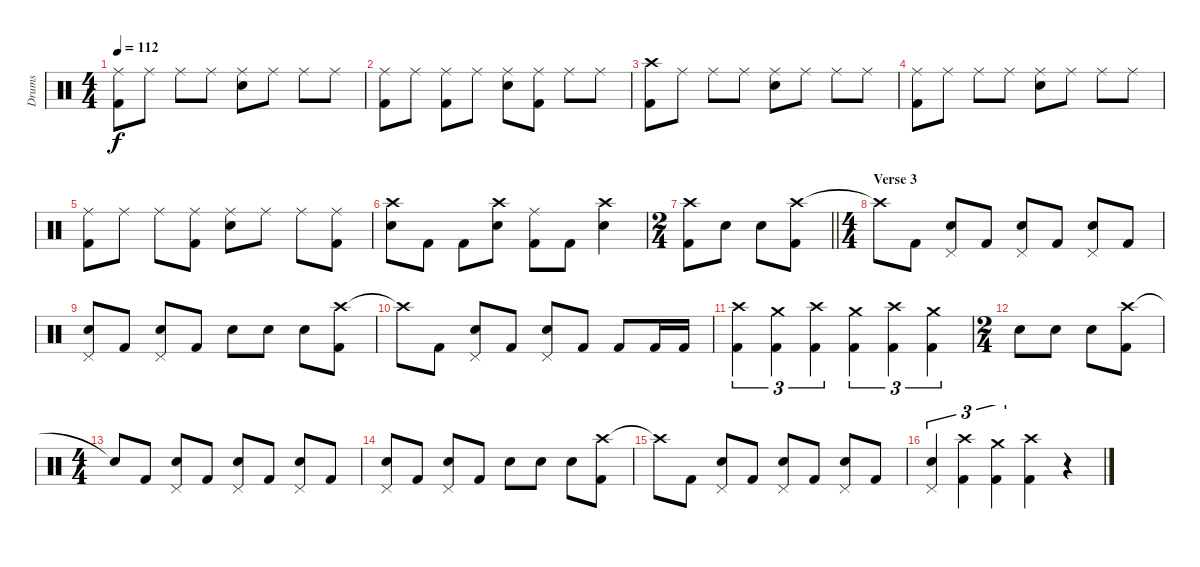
\track ("Drums" "Drums") {instrument percussion}
\staff {score}
\articulation defaults
\ts (4 4)
\tempo 112
\clef neutral
\ks c
("Ride (middle)" "Kick (hit) 2").8{dy f} "Ride (middle)".8 "Ride (middle)".8 "Ride (middle)".8 ("Ride (middle)" "Electric Snare (hit)").8 "Ride (middle)".8 "Ride (middle)".8 "Ride (middle)".8 |
("Ride (middle)" "Kick (hit) 2").8 "Ride (middle)".8 ("Ride (middle)" "Kick (hit) 2").8 "Ride (middle)".8 ("Ride (middle)" "Electric Snare (hit)").8 ("Ride (middle)" "Kick (hit) 2").8 "Ride (middle)".8 "Ride (middle)".8 |
("Crash high (hit)" "Kick (hit) 2").8 "Ride (middle)".8 "Ride (middle)".8 "Ride (middle)".8 ("Ride (middle)" "Electric Snare (hit)").8 "Ride (middle)".8 "Ride (middle)".8 "Ride (middle)".8 |
("Ride (middle)" "Kick (hit) 2").8 "Ride (middle)".8 "Ride (middle)".8 "Ride (middle)".8 ("Ride (middle)" "Electric Snare (hit)").8 "Ride (middle)".8 "Ride (middle)".8 "Ride (middle)".8 |
("Ride (middle)" "Kick (hit) 2").8 "Ride (middle)".8 "Ride (middle)".8 ("Ride (middle)" "Kick (hit) 2").8 ("Ride (middle)" "Electric Snare (hit)").8 "Ride (middle)".8 "Ride (middle)".8 ("Ride (middle)" "Kick (hit) 2").8 |
("Crash high (hit)" "Electric Snare (hit)").8 "Kick (hit) 2".8 "Kick (hit) 2".8 ("Crash high (hit)" "Electric Snare (hit)").8 ("Ride (middle)" "Kick (hit) 2").8 "Kick (hit) 2".8 ("Crash high (hit)" "Electric Snare (hit)").4 |
\ts (2 4)
\barLineRight lightlight
("Crash high (hit)" "Kick (hit) 2").8 "Electric Snare (hit)".8 "Electric Snare (hit)".8 ("Crash high (hit)" "Kick (hit) 2").8 |
\ts (4 4)
\section ("" "Verse 3")
"Crash high (hit)"{t}.8 "Kick (hit) 2".8 ("Pedal Hi-Hat (hit)" "Electric Snare (hit)").8 "Kick (hit) 2".8 ("Pedal Hi-Hat (hit)" "Electric Snare (hit)").8 "Kick (hit) 2".8 ("Pedal Hi-Hat (hit)" "Electric Snare (hit)").8 "Kick (hit) 2".8 |
("Pedal Hi-Hat (hit)" "Electric Snare (hit)").8 "Kick (hit) 2".8 ("Pedal Hi-Hat (hit)" "Electric Snare (hit)").8 "Kick (hit) 2".8 "Electric Snare (hit)".8 "Electric Snare (hit)".8 "Electric Snare (hit)".8 ("Crash high (hit)" "Kick (hit) 2").8 |
"Crash high (hit)"{t}.8 "Kick (hit) 2".8 ("Pedal Hi-Hat (hit)" "Electric Snare (hit)").8 "Kick (hit) 2".8 ("Pedal Hi-Hat (hit)" "Electric Snare (hit)").8 "Kick (hit) 2".8 "Kick (hit) 2".8 "Kick (hit) 2".16 "Kick (hit) 2".16 |
("Crash high (hit)" "Kick (hit) 2").4{tu (3 2)} ("Crash medium (hit)" "Kick (hit) 2").4{tu (3 2)} ("Crash high (hit)" "Kick (hit) 2").4{tu (3 2)} ("Crash medium (hit)" "Kick (hit) 2").4{tu (3 2)} ("Crash high (hit)" "Kick (hit) 2").4{tu (3 2)} ("Crash medium (hit)" "Kick (hit) 2").4{tu (3 2)} |
\ts (2 4)
"Electric Snare (hit)".8 "Electric Snare (hit)".8 "Electric Snare (hit)".8 ("Crash high (hit)" "Kick (hit) 2").8 |
\ts (4 4)
"Snare (hit)"{t}.8 "Kick (hit) 2".8 ("Pedal Hi-Hat (hit)" "Electric Snare (hit)").8 "Kick (hit) 2".8 ("Pedal Hi-Hat (hit)" "Electric Snare (hit)").8 "Kick (hit) 2".8 ("Pedal Hi-Hat (hit)" "Electric Snare (hit)").8 "Kick (hit) 2".8 |
("Pedal Hi-Hat (hit)" "Electric Snare (hit)").8 "Kick (hit) 2".8 ("Pedal Hi-Hat (hit)" "Electric Snare (hit)").8 "Kick (hit) 2".8 "Electric Snare (hit)".8 "Electric Snare (hit)".8 "Electric Snare (hit)".8 ("Crash high (hit)" "Kick (hit) 2").8 |
"Crash high (hit)"{t}.8 "Kick (hit) 2".8 ("Pedal Hi-Hat (hit)" "Electric Snare (hit)").8 "Kick (hit) 2".8 ("Pedal Hi-Hat (hit)" "Electric Snare (hit)").8 "Kick (hit) 2".8 ("Pedal Hi-Hat (hit)" "Electric Snare (hit)").8 "Kick (hit) 2".8 |
("Pedal Hi-Hat (hit)" "Electric Snare (hit)").4{tu (3 2)} ("Crash high (hit)" "Kick (hit) 2").4{tu (3 2)} ("Crash medium (hit)" "Kick (hit) 2").4{tu (3 2)} ("Crash high (hit)" "Kick (hit) 2").4 r.4
